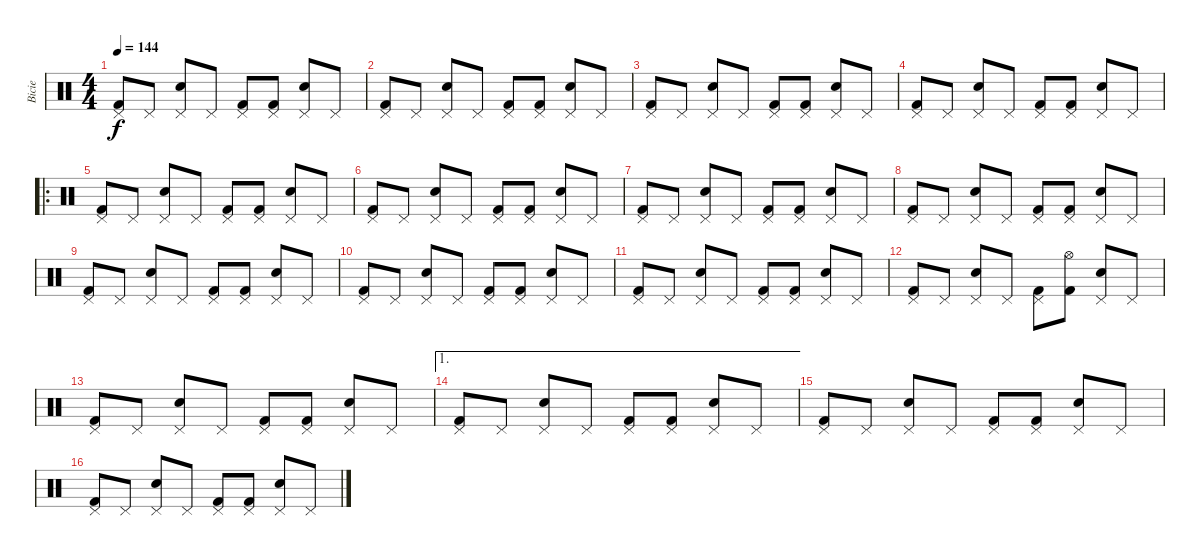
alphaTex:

\track ("Bicie" "Bicie") {instrument percussion}
\staff {score}
\articulation defaults
\ts (4 4)
\tempo 144
\clef neutral
\ks c
("Pedal Hi-Hat (hit)" "Kick (hit) 2").8{dy f} "Pedal Hi-Hat (hit)".8 ("Pedal Hi-Hat (hit)" "Snare (hit) 2").8 "Pedal Hi-Hat (hit)".8 ("Pedal Hi-Hat (hit)" "Kick (hit) 2").8 ("Pedal Hi-Hat (hit)" "Kick (hit) 2").8 ("Pedal Hi-Hat (hit)" "Snare (hit) 2").8 "Pedal Hi-Hat (hit)".8 |
("Pedal Hi-Hat (hit)" "Kick (hit) 2").8 "Pedal Hi-Hat (hit)".8 ("Pedal Hi-Hat (hit)" "Snare (hit) 2").8 "Pedal Hi-Hat (hit)".8 ("Pedal Hi-Hat (hit)" "Kick (hit) 2").8 ("Pedal Hi-Hat (hit)" "Kick (hit) 2").8 ("Pedal Hi-Hat (hit)" "Snare (hit) 2").8 "Pedal Hi-Hat (hit)".8 |
("Pedal Hi-Hat (hit)" "Kick (hit) 2").8 "Pedal Hi-Hat (hit)".8 ("Pedal Hi-Hat (hit)" "Snare (hit) 2").8 "Pedal Hi-Hat (hit)".8 ("Pedal Hi-Hat (hit)" "Kick (hit) 2").8 ("Pedal Hi-Hat (hit)" "Kick (hit) 2").8 ("Pedal Hi-Hat (hit)" "Snare (hit) 2").8 "Pedal Hi-Hat (hit)".8 |
("Pedal Hi-Hat (hit)" "Kick (hit) 2").8 "Pedal Hi-Hat (hit)".8 ("Pedal Hi-Hat (hit)" "Snare (hit) 2").8 "Pedal Hi-Hat (hit)".8 ("Pedal Hi-Hat (hit)" "Kick (hit) 2").8 ("Pedal Hi-Hat (hit)" "Kick (hit) 2").8 ("Pedal Hi-Hat (hit)" "Snare (hit) 2").8 "Pedal Hi-Hat (hit)".8 |
\ro
("Pedal Hi-Hat (hit)" "Kick (hit) 2").8 "Pedal Hi-Hat (hit)".8 ("Pedal Hi-Hat (hit)" "Snare (hit) 2").8 "Pedal Hi-Hat (hit)".8 ("Pedal Hi-Hat (hit)" "Kick (hit) 2").8 ("Pedal Hi-Hat (hit)" "Kick (hit) 2").8 ("Pedal Hi-Hat (hit)" "Snare (hit) 2").8 "Pedal Hi-Hat (hit)".8 |
("Pedal Hi-Hat (hit)" "Kick (hit) 2").8 "Pedal Hi-Hat (hit)".8 ("Pedal Hi-Hat (hit)" "Snare (hit) 2").8 "Pedal Hi-Hat (hit)".8 ("Pedal Hi-Hat (hit)" "Kick (hit) 2").8 ("Pedal Hi-Hat (hit)" "Kick (hit) 2").8 ("Pedal Hi-Hat (hit)" "Snare (hit) 2").8 "Pedal Hi-Hat (hit)".8 |
("Pedal Hi-Hat (hit)" "Kick (hit) 2").8 "Pedal Hi-Hat (hit)".8 ("Pedal Hi-Hat (hit)" "Snare (hit) 2").8 "Pedal Hi-Hat (hit)".8 ("Pedal Hi-Hat (hit)" "Kick (hit) 2").8 ("Pedal Hi-Hat (hit)" "Kick (hit) 2").8 ("Pedal Hi-Hat (hit)" "Snare (hit) 2").8 "Pedal Hi-Hat (hit)".8 |
("Pedal Hi-Hat (hit)" "Kick (hit) 2").8 "Pedal Hi-Hat (hit)".8 ("Pedal Hi-Hat (hit)" "Snare (hit) 2").8 "Pedal Hi-Hat (hit)".8 ("Pedal Hi-Hat (hit)" "Kick (hit) 2").8 ("Pedal Hi-Hat (hit)" "Kick (hit) 2").8 ("Pedal Hi-Hat (hit)" "Snare (hit) 2").8 "Pedal Hi-Hat (hit)".8 |
("Pedal Hi-Hat (hit)" "Kick (hit) 2").8 "Pedal Hi-Hat (hit)".8 ("Pedal Hi-Hat (hit)" "Snare (hit) 2").8 "Pedal Hi-Hat (hit)".8 ("Pedal Hi-Hat (hit)" "Kick (hit) 2").8 ("Pedal Hi-Hat (hit)" "Kick (hit) 2").8 ("Pedal Hi-Hat (hit)" "Snare (hit) 2").8 "Pedal Hi-Hat (hit)".8 |
("Pedal Hi-Hat (hit)" "Kick (hit) 2").8 "Pedal Hi-Hat (hit)".8 ("Pedal Hi-Hat (hit)" "Snare (hit) 2").8 "Pedal Hi-Hat (hit)".8 ("Pedal Hi-Hat (hit)" "Kick (hit) 2").8 ("Pedal Hi-Hat (hit)" "Kick (hit) 2").8 ("Pedal Hi-Hat (hit)" "Snare (hit) 2").8 "Pedal Hi-Hat (hit)".8 |
("Pedal Hi-Hat (hit)" "Kick (hit) 2").8 "Pedal Hi-Hat (hit)".8 ("Pedal Hi-Hat (hit)" "Snare (hit) 2").8 "Pedal Hi-Hat (hit)".8 ("Pedal Hi-Hat (hit)" "Kick (hit) 2").8 ("Pedal Hi-Hat (hit)" "Kick (hit) 2").8 ("Pedal Hi-Hat (hit)" "Snare (hit) 2").8 "Pedal Hi-Hat (hit)".8 |
("Pedal Hi-Hat (hit)" "Kick (hit) 2").8 "Pedal Hi-Hat (hit)".8 ("Pedal Hi-Hat (hit)" "Snare (hit) 2").8 "Pedal Hi-Hat (hit)".8 ("Pedal Hi-Hat (hit)" "Kick (hit) 2").8 ("Hi-Hat (open)" "Kick (hit) 2").8 ("Pedal Hi-Hat (hit)" "Snare (hit) 2").8 "Pedal Hi-Hat (hit)".8 |
("Pedal Hi-Hat (hit)" "Kick (hit) 2").8 "Pedal Hi-Hat (hit)".8 ("Pedal Hi-Hat (hit)" "Snare (hit) 2").8 "Pedal Hi-Hat (hit)".8 ("Pedal Hi-Hat (hit)" "Kick (hit) 2").8 ("Pedal Hi-Hat (hit)" "Kick (hit) 2").8 ("Pedal Hi-Hat (hit)" "Snare (hit) 2").8 "Pedal Hi-Hat (hit)".8 |
\ae 1
("Pedal Hi-Hat (hit)" "Kick (hit) 2").8 "Pedal Hi-Hat (hit)".8 ("Pedal Hi-Hat (hit)" "Snare (hit) 2").8 "Pedal Hi-Hat (hit)".8 ("Pedal Hi-Hat (hit)" "Kick (hit) 2").8 ("Pedal Hi-Hat (hit)" "Kick (hit) 2").8 ("Pedal Hi-Hat (hit)" "Snare (hit) 2").8 "Pedal Hi-Hat (hit)".8 |
("Pedal Hi-Hat (hit)" "Kick (hit) 2").8 "Pedal Hi-Hat (hit)".8 ("Pedal Hi-Hat (hit)" "Snare (hit) 2").8 "Pedal Hi-Hat (hit)".8 ("Pedal Hi-Hat (hit)" "Kick (hit) 2").8 ("Pedal Hi-Hat (hit)" "Kick (hit) 2").8 ("Pedal Hi-Hat (hit)" "Snare (hit) 2").8 "Pedal Hi-Hat (hit)".8 |
("Pedal Hi-Hat (hit)" "Kick (hit) 2").8 "Pedal Hi-Hat (hit)".8 ("Pedal Hi-Hat (hit)" "Snare (hit) 2").8 "Pedal Hi-Hat (hit)".8 ("Pedal Hi-Hat (hit)" "Kick (hit) 2").8 ("Pedal Hi-Hat (hit)" "Kick (hit) 2").8 ("Pedal Hi-Hat (hit)" "Snare (hit) 2").8 "Pedal Hi-Hat (hit)".8
